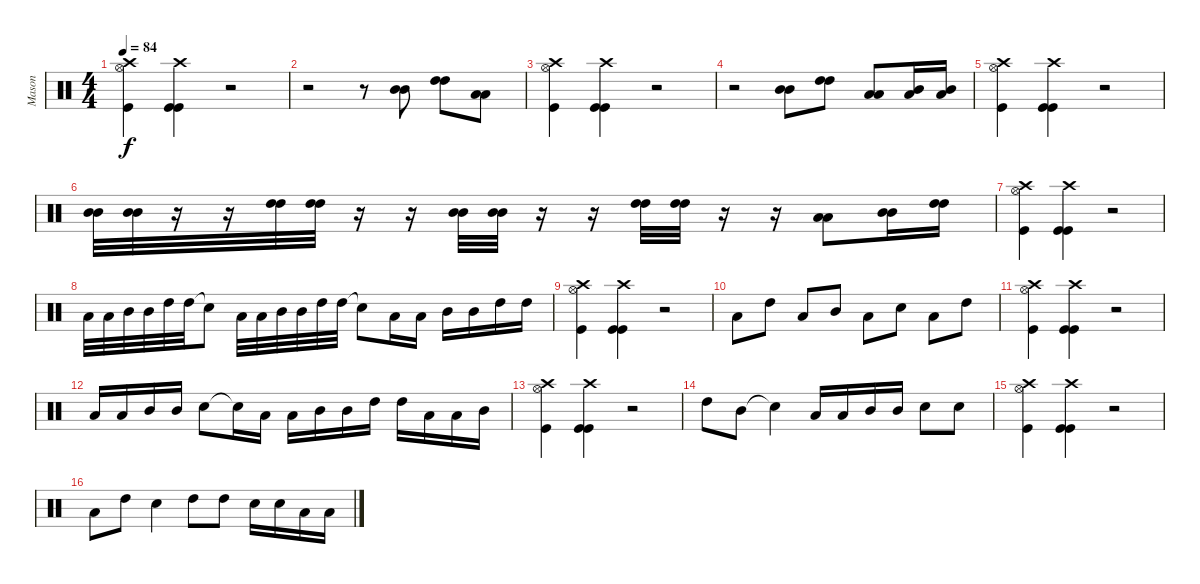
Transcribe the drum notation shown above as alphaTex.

\track ("Mason" "Mason") {instrument percussion}
\staff {score}
\articulation defaults
\ts (4 4)
\tempo 84
\clef neutral
\ks c
("Kick (hit)" "Hi-Hat (open)" "Crash high (hit)").4{dy f} ("Kick (hit)" "Kick (hit)" "Crash high (hit)").4 r.2 |
r.2 r.8 ("Mid Tom (hit)" "Mid Tom (hit)").8 ("High Tom (hit)" "High Tom (hit)").8 ("Low Tom (hit)" "Low Tom (hit)").8 |
("Kick (hit)" "Hi-Hat (open)" "Crash high (hit)").4 ("Kick (hit)" "Kick (hit)" "Crash high (hit)").4 r.2 |
r.2 ("Mid Tom (hit)" "Mid Tom (hit)").8 ("High Tom (hit)" "High Tom (hit)").8 ("Low Tom (hit)" "Low Tom (hit)").8 ("Low Floor Tom (hit)" "Mid Tom (hit)").16 ("Low Floor Tom (hit)" "Mid Tom (hit)").16 |
("Kick (hit)" "Hi-Hat (open)" "Crash high (hit)").4 ("Kick (hit)" "Kick (hit)" "Crash high (hit)").4 r.2 |
("Mid Tom (hit)" "Mid Tom (hit)").32 ("Mid Tom (hit)" "Mid Tom (hit)").32 r.16 r.16 ("High Tom (hit)" "High Tom (hit)").32 ("High Tom (hit)" "High Tom (hit)").32 r.16 r.16 ("Mid Tom (hit)" "Mid Tom (hit)").32 ("Mid Tom (hit)" "Mid Tom (hit)").32 r.16 r.16 ("High Tom (hit)" "High Tom (hit)").32 ("High Tom (hit)" "High Tom (hit)").32 r.16 r.16 ("Low Tom (hit)" "Low Tom (hit)").8 ("Mid Tom (hit)" "Mid Tom (hit)").16 ("High Tom (hit)" "High Tom (hit)").16 |
("Kick (hit)" "Hi-Hat (open)" "Crash high (hit)").4 ("Kick (hit)" "Kick (hit)" "Crash high (hit)").4 r.2 |
"Low Tom (hit)".32 "Low Tom (hit)".32 "Mid Tom (hit)".32 "Mid Tom (hit)".32 "High Tom (hit)".32 "High Tom (hit)".32 "Snare (hit)"{t}.8 "Low Tom (hit)".32 "Low Tom (hit)".32 "Mid Tom (hit)".32 "Mid Tom (hit)".32 "High Tom (hit)".32 "High Tom (hit)".32 "Snare (hit)"{t}.8 "Low Tom (hit)".16 "Low Tom (hit)".16 "Mid Tom (hit)".16 "Mid Tom (hit)".16 "High Tom (hit)".16 "High Tom (hit)".16 |
("Kick (hit)" "Hi-Hat (open)" "Crash high (hit)").4 ("Kick (hit)" "Kick (hit)" "Crash high (hit)").4 r.2 |
"Low Tom (hit)".8 "High Tom (hit)".8 "Low Tom (hit)".8 "Mid Tom (hit)".8 "Low Tom (hit)".8 "Snare (hit) 2".8 "Low Tom (hit)".8 "High Tom (hit)".8 |
("Kick (hit)" "Hi-Hat (open)" "Crash high (hit)").4 ("Kick (hit)" "Kick (hit)" "Crash high (hit)").4 r.2 |
"Low Tom (hit)".16 "Low Tom (hit)".16 "Mid Tom (hit)".16 "Mid Tom (hit)".16 "Snare (hit) 2".8 "Snare (hit)"{t}.16 "Low Tom (hit)".16 "Low Tom (hit)".16 "Mid Tom (hit)".16 "Mid Tom (hit)".16 "High Tom (hit)".16 "High Tom (hit)".16 "Low Tom (hit)".16 "Low Tom (hit)".16 "Mid Tom (hit)".16 |
("Kick (hit)" "Hi-Hat (open)" "Crash high (hit)").4 ("Kick (hit)" "Kick (hit)" "Crash high (hit)").4 r.2 |
"High Tom (hit)".8 "Mid Tom (hit)".8 "Snare (hit)"{t}.4 "Low Tom (hit)".16 "Low Tom (hit)".16 "Mid Tom (hit)".16 "Mid Tom (hit)".16 "Snare (hit) 2".8 "Snare (hit) 2".8 |
("Kick (hit)" "Hi-Hat (open)" "Crash high (hit)").4 ("Kick (hit)" "Kick (hit)" "Crash high (hit)").4 r.2 |
"Low Tom (hit)".8 "High Tom (hit)".8 "Snare (hit) 2".4 "High Tom (hit)".8 "High Tom (hit)".8 "Snare (hit) 2".16 "Snare (hit) 2".16 "Low Tom (hit)".16 "Low Tom (hit)".16
